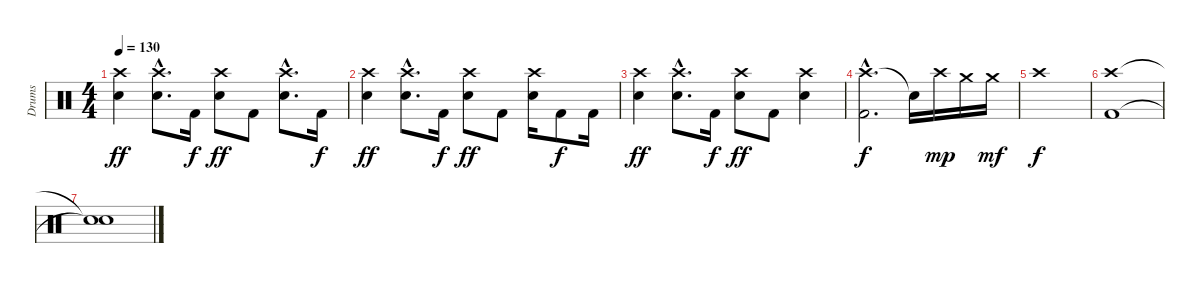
\track ("Drums" "Drums") {instrument percussion}
\staff {score}
\articulation defaults
\ts (4 4)
\tempo 130
\clef neutral
\ks c
("Crash high (hit)" "Electric Snare (hit)").4{dy ff} ("Crash high (hit)"{hac} "Electric Snare (hit)"{hac}).8{d} "Kick (hit) 2".16{dy f} ("Crash high (hit)" "Electric Snare (hit)").8{dy ff} "Kick (hit) 2".8 ("Crash high (hit)"{hac} "Electric Snare (hit)"{hac}).8{d} "Kick (hit) 2".16{dy f} |
("Crash high (hit)" "Electric Snare (hit)").4{dy ff} ("Crash high (hit)"{hac} "Electric Snare (hit)"{hac}).8{d} "Kick (hit) 2".16{dy f} ("Crash high (hit)" "Electric Snare (hit)").8{dy ff} "Kick (hit) 2".8 ("Crash high (hit)" "Electric Snare (hit)").16 "Kick (hit) 2".8{dy f} "Kick (hit) 2".16 |
("Crash high (hit)" "Electric Snare (hit)").4{dy ff} ("Crash high (hit)"{hac} "Electric Snare (hit)"{hac}).8{d} "Kick (hit) 2".16{dy f} ("Crash high (hit)" "Electric Snare (hit)").8{dy ff} "Kick (hit) 2".8 ("Crash high (hit)" "Electric Snare (hit)").4 |
("Crash high (hit)"{hac} "Kick (hit) 2"{hac}).2{d dy f} "Snare (hit)"{t}.16 "Crash high (hit)".16{dy mp} "Crash medium (hit)".16 "Crash medium (hit)".16{dy mf} |
"Crash high (hit)".1{dy f} |
("Crash high (hit)" "Kick (hit) 2").1 |
("Snare (hit)"{t} "Snare (hit)"{t}).1
